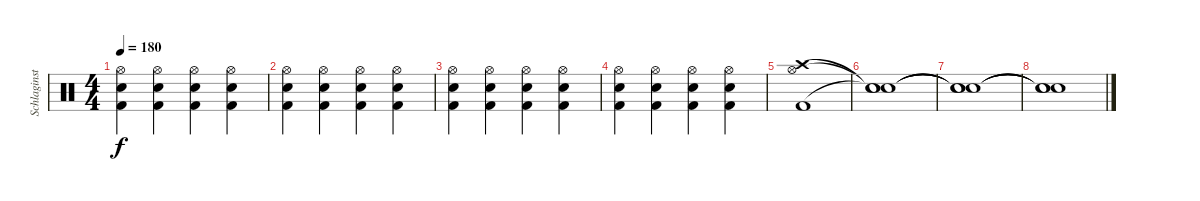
\track ("Schlaginstrumente - Auswahl" "Schlaginst") {instrument percussion}
\staff {score}
\articulation defaults
\ts (4 4)
\tempo 180
\clef neutral
\ks c
("Hi-Hat (open)" "Electric Snare (hit)" "Kick (hit) 2").4{dy f} ("Hi-Hat (open)" "Electric Snare (hit)" "Kick (hit) 2").4 ("Hi-Hat (open)" "Electric Snare (hit)" "Kick (hit) 2").4 ("Hi-Hat (open)" "Electric Snare (hit)" "Kick (hit) 2").4 |
("Hi-Hat (open)" "Electric Snare (hit)" "Kick (hit) 2").4 ("Hi-Hat (open)" "Electric Snare (hit)" "Kick (hit) 2").4 ("Hi-Hat (open)" "Electric Snare (hit)" "Kick (hit) 2").4 ("Hi-Hat (open)" "Electric Snare (hit)" "Kick (hit) 2").4 |
("Hi-Hat (open)" "Electric Snare (hit)" "Kick (hit) 2").4 ("Hi-Hat (open)" "Electric Snare (hit)" "Kick (hit) 2").4 ("Hi-Hat (open)" "Electric Snare (hit)" "Kick (hit) 2").4 ("Hi-Hat (open)" "Electric Snare (hit)" "Kick (hit) 2").4 |
("Hi-Hat (open)" "Electric Snare (hit)" "Kick (hit) 2").4 ("Hi-Hat (open)" "Electric Snare (hit)" "Kick (hit) 2").4 ("Hi-Hat (open)" "Electric Snare (hit)" "Kick (hit) 2").4 ("Hi-Hat (open)" "Electric Snare (hit)" "Kick (hit) 2").4 |
("Crash high (hit)" "Hi-Hat (open)" "Kick (hit) 2").1 |
("Snare (hit)"{t} "Snare (hit)"{t} "Snare (hit)"{t}).1 |
("Snare (hit)"{t} "Snare (hit)"{t} "Snare (hit)"{t}).1 |
("Snare (hit)"{t} "Snare (hit)"{t} "Snare (hit)"{t}).1
